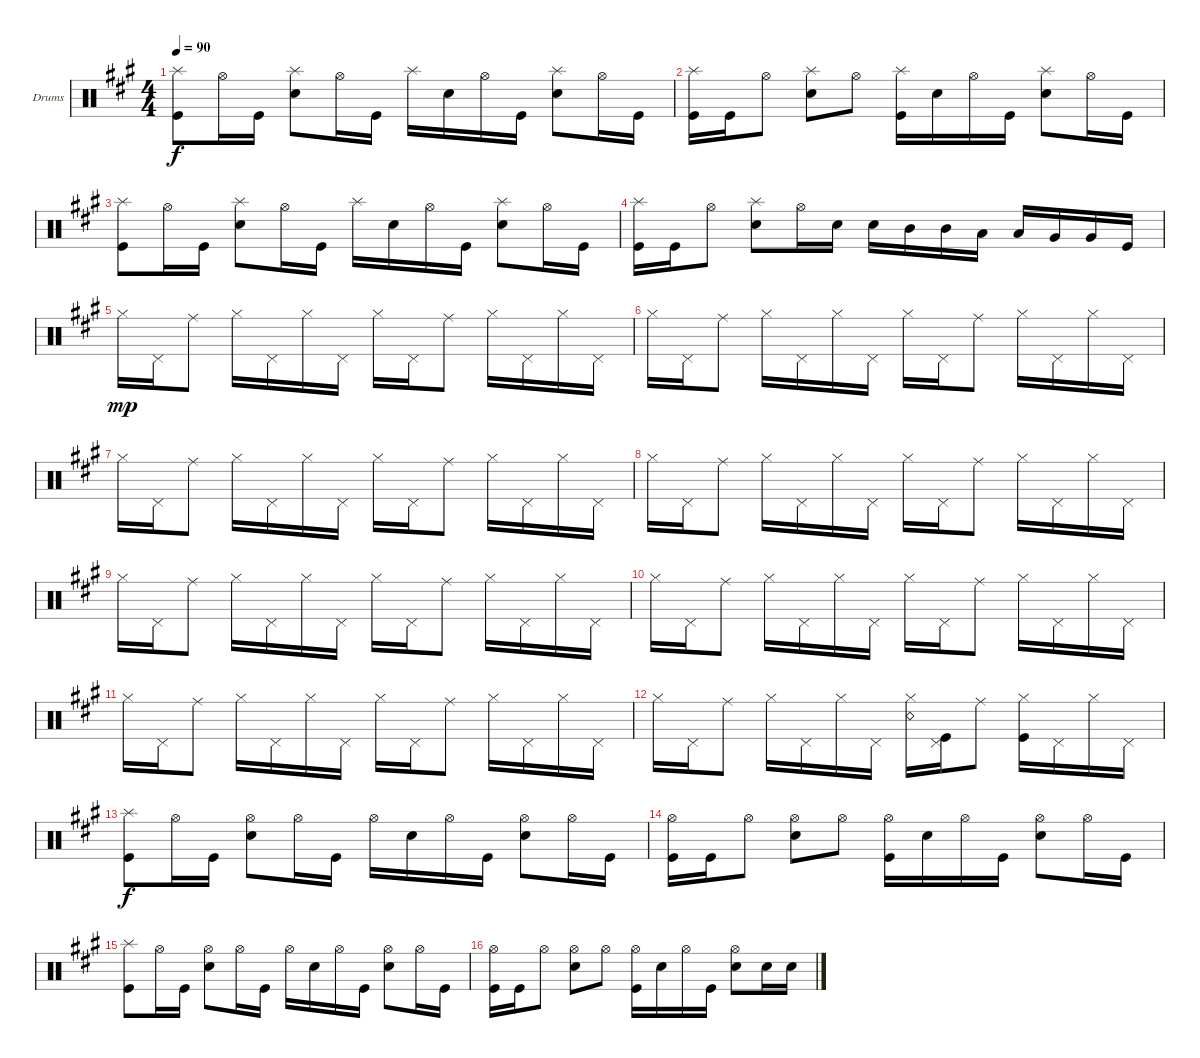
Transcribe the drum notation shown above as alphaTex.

\bracketExtendMode groupsimilarinstruments
\firstSystemTrackNameOrientation horizontal
\otherSystemsTrackNameOrientation horizontal
\track ("Drumkit" "Drums") {instrument percussion}
\staff {score}
\articulation defaults
\ts (4 4)
\tempo 90
\clef neutral
\ks f#minor
("Kick (hit)" "Splash (hit)").8{dy f} "Hi-Hat (open)".16 "Kick (hit)".16 ("Snare (hit) 2" "Splash (hit)").8 "Hi-Hat (open)".16 "Kick (hit)".16 "Splash (hit)".16 "Snare (hit) 2".16 "Hi-Hat (open)".16 "Kick (hit)".16 ("Snare (hit) 2" "Splash (hit)").8 "Hi-Hat (open)".16 "Kick (hit)".16 |
("Kick (hit)" "Splash (hit)").16 "Kick (hit)".16 "Hi-Hat (open)".8 ("Snare (hit) 2" "Splash (hit)").8 "Hi-Hat (open)".8 ("Kick (hit)" "Splash (hit)").16 "Snare (hit) 2".16 "Hi-Hat (open)".16 "Kick (hit)".16 ("Snare (hit) 2" "Splash (hit)").8 "Hi-Hat (open)".16 "Kick (hit)".16 |
("Kick (hit)" "Splash (hit)").8 "Hi-Hat (open)".16 "Kick (hit)".16 ("Snare (hit) 2" "Splash (hit)").8 "Hi-Hat (open)".16 "Kick (hit)".16 "Splash (hit)".16 "Snare (hit) 2".16 "Hi-Hat (open)".16 "Kick (hit)".16 ("Snare (hit) 2" "Splash (hit)").8 "Hi-Hat (open)".16 "Kick (hit)".16 |
("Kick (hit)" "Splash (hit)").16 "Kick (hit)".16 "Hi-Hat (open)".8 ("Snare (hit) 2" "Splash (hit)").8 "Hi-Hat (open)".16 "Snare (hit) 2".16 "Snare (hit) 2".16 "Mid Tom (hit)".16 "Mid Tom (hit)".16 "Low Tom (hit)".16 "Low Tom (hit)".16 "Very Low Tom (hit)".16 "Very Low Tom (hit)".16 "Kick (hit)".16 |
"Hi-Hat (closed)".16{dy mp} "Pedal Hi-Hat (hit)".16 "Ride (middle)".8 "Hi-Hat (closed)".16 "Pedal Hi-Hat (hit)".16 "Hi-Hat (closed)".16 "Pedal Hi-Hat (hit)".16 "Hi-Hat (closed)".16 "Pedal Hi-Hat (hit)".16 "Ride (middle)".8 "Hi-Hat (closed)".16 "Pedal Hi-Hat (hit)".16 "Hi-Hat (closed)".16 "Pedal Hi-Hat (hit)".16 |
"Hi-Hat (closed)".16 "Pedal Hi-Hat (hit)".16 "Ride (middle)".8 "Hi-Hat (closed)".16 "Pedal Hi-Hat (hit)".16 "Hi-Hat (closed)".16 "Pedal Hi-Hat (hit)".16 "Hi-Hat (closed)".16 "Pedal Hi-Hat (hit)".16 "Ride (middle)".8 "Hi-Hat (closed)".16 "Pedal Hi-Hat (hit)".16 "Hi-Hat (closed)".16 "Pedal Hi-Hat (hit)".16 |
"Hi-Hat (closed)".16 "Pedal Hi-Hat (hit)".16 "Ride (middle)".8 "Hi-Hat (closed)".16 "Pedal Hi-Hat (hit)".16 "Hi-Hat (closed)".16 "Pedal Hi-Hat (hit)".16 "Hi-Hat (closed)".16 "Pedal Hi-Hat (hit)".16 "Ride (middle)".8 "Hi-Hat (closed)".16 "Pedal Hi-Hat (hit)".16 "Hi-Hat (closed)".16 "Pedal Hi-Hat (hit)".16 |
"Hi-Hat (closed)".16 "Pedal Hi-Hat (hit)".16 "Ride (middle)".8 "Hi-Hat (closed)".16 "Pedal Hi-Hat (hit)".16 "Hi-Hat (closed)".16 "Pedal Hi-Hat (hit)".16 "Hi-Hat (closed)".16 "Pedal Hi-Hat (hit)".16 "Ride (middle)".8 "Hi-Hat (closed)".16 "Pedal Hi-Hat (hit)".16 "Hi-Hat (closed)".16 "Pedal Hi-Hat (hit)".16 |
"Hi-Hat (closed)".16 "Pedal Hi-Hat (hit)".16 "Ride (middle)".8 "Hi-Hat (closed)".16 "Pedal Hi-Hat (hit)".16 "Hi-Hat (closed)".16 "Pedal Hi-Hat (hit)".16 "Hi-Hat (closed)".16 "Pedal Hi-Hat (hit)".16 "Ride (middle)".8 "Hi-Hat (closed)".16 "Pedal Hi-Hat (hit)".16 "Hi-Hat (closed)".16 "Pedal Hi-Hat (hit)".16 |
"Hi-Hat (closed)".16 "Pedal Hi-Hat (hit)".16 "Ride (middle)".8 "Hi-Hat (closed)".16 "Pedal Hi-Hat (hit)".16 "Hi-Hat (closed)".16 "Pedal Hi-Hat (hit)".16 "Hi-Hat (closed)".16 "Pedal Hi-Hat (hit)".16 "Ride (middle)".8 "Hi-Hat (closed)".16 "Pedal Hi-Hat (hit)".16 "Hi-Hat (closed)".16 "Pedal Hi-Hat (hit)".16 |
"Hi-Hat (closed)".16 "Pedal Hi-Hat (hit)".16 "Ride (middle)".8 "Hi-Hat (closed)".16 "Pedal Hi-Hat (hit)".16 "Hi-Hat (closed)".16 "Pedal Hi-Hat (hit)".16 "Hi-Hat (closed)".16 "Pedal Hi-Hat (hit)".16 "Ride (middle)".8 "Hi-Hat (closed)".16 "Pedal Hi-Hat (hit)".16 "Hi-Hat (closed)".16 "Pedal Hi-Hat (hit)".16 |
"Hi-Hat (closed)".16 "Pedal Hi-Hat (hit)".16 "Ride (middle)".8 "Hi-Hat (closed)".16 "Pedal Hi-Hat (hit)".16 "Hi-Hat (closed)".16 "Pedal Hi-Hat (hit)".16 ("Hi-Hat (closed)" "Snare (rim shot)").16 ("Pedal Hi-Hat (hit)" "Kick (hit)").16 "Ride (middle)".8 ("Hi-Hat (closed)" "Kick (hit)").16 "Pedal Hi-Hat (hit)".16 "Hi-Hat (closed)".16 "Pedal Hi-Hat (hit)".16 |
("Kick (hit)" "Splash (hit)").8{dy f} "Hi-Hat (open)".16 "Kick (hit)".16 ("Snare (hit) 2" "Hi-Hat (open)").8 "Hi-Hat (open)".16 "Kick (hit)".16 "Hi-Hat (open)".16 "Snare (hit) 2".16 "Hi-Hat (open)".16 "Kick (hit)".16 ("Snare (hit) 2" "Hi-Hat (open)").8 "Hi-Hat (open)".16 "Kick (hit)".16 |
("Hi-Hat (open)" "Kick (hit)").16 "Kick (hit)".16 "Hi-Hat (open)".8 ("Snare (hit) 2" "Hi-Hat (open)").8 "Hi-Hat (open)".8 ("Kick (hit)" "Hi-Hat (open)").16 "Snare (hit) 2".16 "Hi-Hat (open)".16 "Kick (hit)".16 ("Snare (hit) 2" "Hi-Hat (open)").8 "Hi-Hat (open)".16 "Kick (hit)".16 |
("Kick (hit)" "Splash (hit)").8 "Hi-Hat (open)".16 "Kick (hit)".16 ("Snare (hit) 2" "Hi-Hat (open)").8 "Hi-Hat (open)".16 "Kick (hit)".16 "Hi-Hat (open)".16 "Snare (hit) 2".16 "Hi-Hat (open)".16 "Kick (hit)".16 ("Snare (hit) 2" "Hi-Hat (open)").8 "Hi-Hat (open)".16 "Kick (hit)".16 |
("Hi-Hat (open)" "Kick (hit)").16 "Kick (hit)".16 "Hi-Hat (open)".8 ("Snare (hit) 2" "Hi-Hat (open)").8 "Hi-Hat (open)".8 ("Kick (hit)" "Hi-Hat (open)").16 "Snare (hit) 2".16 "Hi-Hat (open)".16 "Kick (hit)".16 ("Snare (hit) 2" "Hi-Hat (open)").8 "Snare (hit) 2".16 "Snare (hit) 2".16
